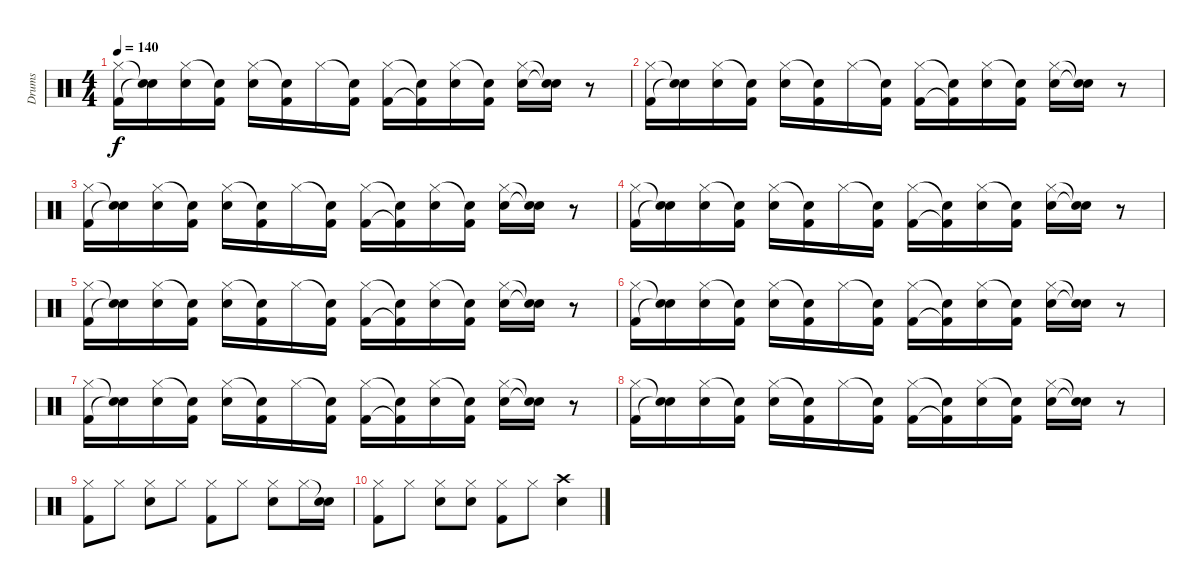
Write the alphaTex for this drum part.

\track ("Drums" "Drums") {instrument percussion}
\staff {score}
\articulation defaults
\ts (4 4)
\tempo 140
\clef neutral
\ks c
("Hi-Hat (closed)" "Kick (hit) 2").16{dy f} ("Snare (hit)"{t} "Snare (hit)"{t}).16 ("Hi-Hat (closed)" "Snare (hit) 2").16 ("Snare (hit)"{t} "Kick (hit) 2").16 ("Hi-Hat (closed)" "Snare (hit) 2").16 ("Snare (hit)"{t} "Kick (hit) 2").16 "Hi-Hat (closed)".16 ("Snare (hit)"{t} "Kick (hit) 2").16 ("Hi-Hat (closed)" "Kick (hit) 2").16 ("Snare (hit)"{t} "Kick (hit) 2"{t}).16 ("Hi-Hat (closed)" "Snare (hit) 2").16 ("Snare (hit)"{t} "Kick (hit) 2").16 ("Hi-Hat (closed)" "Snare (hit) 2").16 ("Snare (hit)"{t} "Snare (hit)"{t}).16 r.8 |
("Hi-Hat (closed)" "Kick (hit) 2").16 ("Snare (hit)"{t} "Snare (hit)"{t}).16 ("Hi-Hat (closed)" "Snare (hit) 2").16 ("Snare (hit)"{t} "Kick (hit) 2").16 ("Hi-Hat (closed)" "Snare (hit) 2").16 ("Snare (hit)"{t} "Kick (hit) 2").16 "Hi-Hat (closed)".16 ("Snare (hit)"{t} "Kick (hit) 2").16 ("Hi-Hat (closed)" "Kick (hit) 2").16 ("Snare (hit)"{t} "Kick (hit) 2"{t}).16 ("Hi-Hat (closed)" "Snare (hit) 2").16 ("Snare (hit)"{t} "Kick (hit) 2").16 ("Hi-Hat (closed)" "Snare (hit) 2").16 ("Snare (hit)"{t} "Snare (hit)"{t}).16 r.8 |
("Hi-Hat (closed)" "Kick (hit) 2").16 ("Snare (hit)"{t} "Snare (hit)"{t}).16 ("Hi-Hat (closed)" "Snare (hit) 2").16 ("Snare (hit)"{t} "Kick (hit) 2").16 ("Hi-Hat (closed)" "Snare (hit) 2").16 ("Snare (hit)"{t} "Kick (hit) 2").16 "Hi-Hat (closed)".16 ("Snare (hit)"{t} "Kick (hit) 2").16 ("Hi-Hat (closed)" "Kick (hit) 2").16 ("Snare (hit)"{t} "Kick (hit) 2"{t}).16 ("Hi-Hat (closed)" "Snare (hit) 2").16 ("Snare (hit)"{t} "Kick (hit) 2").16 ("Hi-Hat (closed)" "Snare (hit) 2").16 ("Snare (hit)"{t} "Snare (hit)"{t}).16 r.8 |
("Hi-Hat (closed)" "Kick (hit) 2").16 ("Snare (hit)"{t} "Snare (hit)"{t}).16 ("Hi-Hat (closed)" "Snare (hit) 2").16 ("Snare (hit)"{t} "Kick (hit) 2").16 ("Hi-Hat (closed)" "Snare (hit) 2").16 ("Snare (hit)"{t} "Kick (hit) 2").16 "Hi-Hat (closed)".16 ("Snare (hit)"{t} "Kick (hit) 2").16 ("Hi-Hat (closed)" "Kick (hit) 2").16 ("Snare (hit)"{t} "Kick (hit) 2"{t}).16 ("Hi-Hat (closed)" "Snare (hit) 2").16 ("Snare (hit)"{t} "Kick (hit) 2").16 ("Hi-Hat (closed)" "Snare (hit) 2").16 ("Snare (hit)"{t} "Snare (hit)"{t}).16 r.8 |
("Hi-Hat (closed)" "Kick (hit) 2").16 ("Snare (hit)"{t} "Snare (hit)"{t}).16 ("Hi-Hat (closed)" "Snare (hit) 2").16 ("Snare (hit)"{t} "Kick (hit) 2").16 ("Hi-Hat (closed)" "Snare (hit) 2").16 ("Snare (hit)"{t} "Kick (hit) 2").16 "Hi-Hat (closed)".16 ("Snare (hit)"{t} "Kick (hit) 2").16 ("Hi-Hat (closed)" "Kick (hit) 2").16 ("Snare (hit)"{t} "Kick (hit) 2"{t}).16 ("Hi-Hat (closed)" "Snare (hit) 2").16 ("Snare (hit)"{t} "Kick (hit) 2").16 ("Hi-Hat (closed)" "Snare (hit) 2").16 ("Snare (hit)"{t} "Snare (hit)"{t}).16 r.8 |
("Hi-Hat (closed)" "Kick (hit) 2").16 ("Snare (hit)"{t} "Snare (hit)"{t}).16 ("Hi-Hat (closed)" "Snare (hit) 2").16 ("Snare (hit)"{t} "Kick (hit) 2").16 ("Hi-Hat (closed)" "Snare (hit) 2").16 ("Snare (hit)"{t} "Kick (hit) 2").16 "Hi-Hat (closed)".16 ("Snare (hit)"{t} "Kick (hit) 2").16 ("Hi-Hat (closed)" "Kick (hit) 2").16 ("Snare (hit)"{t} "Kick (hit) 2"{t}).16 ("Hi-Hat (closed)" "Snare (hit) 2").16 ("Snare (hit)"{t} "Kick (hit) 2").16 ("Hi-Hat (closed)" "Snare (hit) 2").16 ("Snare (hit)"{t} "Snare (hit)"{t}).16 r.8 |
("Hi-Hat (closed)" "Kick (hit) 2").16 ("Snare (hit)"{t} "Snare (hit)"{t}).16 ("Hi-Hat (closed)" "Snare (hit) 2").16 ("Snare (hit)"{t} "Kick (hit) 2").16 ("Hi-Hat (closed)" "Snare (hit) 2").16 ("Snare (hit)"{t} "Kick (hit) 2").16 "Hi-Hat (closed)".16 ("Snare (hit)"{t} "Kick (hit) 2").16 ("Hi-Hat (closed)" "Kick (hit) 2").16 ("Snare (hit)"{t} "Kick (hit) 2"{t}).16 ("Hi-Hat (closed)" "Snare (hit) 2").16 ("Snare (hit)"{t} "Kick (hit) 2").16 ("Hi-Hat (closed)" "Snare (hit) 2").16 ("Snare (hit)"{t} "Snare (hit)"{t}).16 r.8 |
("Hi-Hat (closed)" "Kick (hit) 2").16 ("Snare (hit)"{t} "Snare (hit)"{t}).16 ("Hi-Hat (closed)" "Snare (hit) 2").16 ("Snare (hit)"{t} "Kick (hit) 2").16 ("Hi-Hat (closed)" "Snare (hit) 2").16 ("Snare (hit)"{t} "Kick (hit) 2").16 "Hi-Hat (closed)".16 ("Snare (hit)"{t} "Kick (hit) 2").16 ("Hi-Hat (closed)" "Kick (hit) 2").16 ("Snare (hit)"{t} "Kick (hit) 2"{t}).16 ("Hi-Hat (closed)" "Snare (hit) 2").16 ("Snare (hit)"{t} "Kick (hit) 2").16 ("Hi-Hat (closed)" "Snare (hit) 2").16 ("Snare (hit)"{t} "Snare (hit)"{t}).16 r.8 |
("Hi-Hat (closed)" "Kick (hit) 2").8 "Hi-Hat (closed)".8 ("Hi-Hat (closed)" "Snare (hit) 2").8 "Hi-Hat (closed)".8 ("Hi-Hat (closed)" "Kick (hit) 2").8 "Hi-Hat (closed)".8 ("Hi-Hat (closed)" "Snare (hit) 2").8 "Hi-Hat (closed)".16 ("Snare (hit)"{t} "Snare (hit) 2").16 |
("Hi-Hat (closed)" "Kick (hit) 2").8 "Hi-Hat (closed)".8 ("Hi-Hat (closed)" "Snare (hit) 2").8 ("Hi-Hat (closed)" "Snare (hit) 2").8 ("Hi-Hat (closed)" "Kick (hit) 2").8 "Hi-Hat (closed)".8 ("Crash high (hit)" "Snare (hit) 2").4
